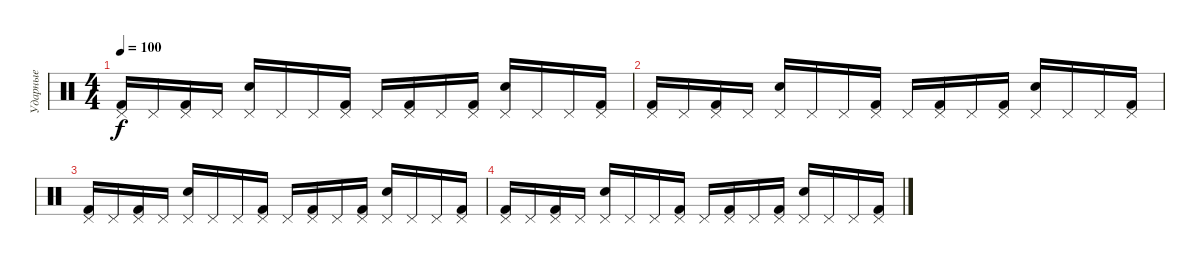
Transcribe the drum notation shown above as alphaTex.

\track ("Ударные" "Ударные") {instrument percussion}
\staff {score}
\articulation defaults
\ts (4 4)
\tempo 100
\clef neutral
\ks c
("Pedal Hi-Hat (hit)" "Kick (hit) 2").16{dy f} "Pedal Hi-Hat (hit)".16 ("Pedal Hi-Hat (hit)" "Kick (hit) 2").16 "Pedal Hi-Hat (hit)".16 ("Pedal Hi-Hat (hit)" "Snare (hit) 2").16 "Pedal Hi-Hat (hit)".16 "Pedal Hi-Hat (hit)".16 ("Pedal Hi-Hat (hit)" "Kick (hit) 2").16 "Pedal Hi-Hat (hit)".16 ("Pedal Hi-Hat (hit)" "Kick (hit) 2").16 "Pedal Hi-Hat (hit)".16 ("Pedal Hi-Hat (hit)" "Kick (hit) 2").16 ("Pedal Hi-Hat (hit)" "Snare (hit) 2").16 "Pedal Hi-Hat (hit)".16 "Pedal Hi-Hat (hit)".16 ("Pedal Hi-Hat (hit)" "Kick (hit) 2").16 |
("Pedal Hi-Hat (hit)" "Kick (hit) 2").16 "Pedal Hi-Hat (hit)".16 ("Pedal Hi-Hat (hit)" "Kick (hit) 2").16 "Pedal Hi-Hat (hit)".16 ("Pedal Hi-Hat (hit)" "Snare (hit) 2").16 "Pedal Hi-Hat (hit)".16 "Pedal Hi-Hat (hit)".16 ("Pedal Hi-Hat (hit)" "Kick (hit) 2").16 "Pedal Hi-Hat (hit)".16 ("Pedal Hi-Hat (hit)" "Kick (hit) 2").16 "Pedal Hi-Hat (hit)".16 ("Pedal Hi-Hat (hit)" "Kick (hit) 2").16 ("Pedal Hi-Hat (hit)" "Snare (hit) 2").16 "Pedal Hi-Hat (hit)".16 "Pedal Hi-Hat (hit)".16 ("Pedal Hi-Hat (hit)" "Kick (hit) 2").16 |
("Pedal Hi-Hat (hit)" "Kick (hit) 2").16 "Pedal Hi-Hat (hit)".16 ("Pedal Hi-Hat (hit)" "Kick (hit) 2").16 "Pedal Hi-Hat (hit)".16 ("Pedal Hi-Hat (hit)" "Snare (hit) 2").16 "Pedal Hi-Hat (hit)".16 "Pedal Hi-Hat (hit)".16 ("Pedal Hi-Hat (hit)" "Kick (hit) 2").16 "Pedal Hi-Hat (hit)".16 ("Pedal Hi-Hat (hit)" "Kick (hit) 2").16 "Pedal Hi-Hat (hit)".16 ("Pedal Hi-Hat (hit)" "Kick (hit) 2").16 ("Pedal Hi-Hat (hit)" "Snare (hit) 2").16 "Pedal Hi-Hat (hit)".16 "Pedal Hi-Hat (hit)".16 ("Pedal Hi-Hat (hit)" "Kick (hit) 2").16 |
("Pedal Hi-Hat (hit)" "Kick (hit) 2").16 "Pedal Hi-Hat (hit)".16 ("Pedal Hi-Hat (hit)" "Kick (hit) 2").16 "Pedal Hi-Hat (hit)".16 ("Pedal Hi-Hat (hit)" "Snare (hit) 2").16 "Pedal Hi-Hat (hit)".16 "Pedal Hi-Hat (hit)".16 ("Pedal Hi-Hat (hit)" "Kick (hit) 2").16 "Pedal Hi-Hat (hit)".16 ("Pedal Hi-Hat (hit)" "Kick (hit) 2").16 "Pedal Hi-Hat (hit)".16 ("Pedal Hi-Hat (hit)" "Kick (hit) 2").16 ("Pedal Hi-Hat (hit)" "Snare (hit) 2").16 "Pedal Hi-Hat (hit)".16 "Pedal Hi-Hat (hit)".16 ("Pedal Hi-Hat (hit)" "Kick (hit) 2").16
